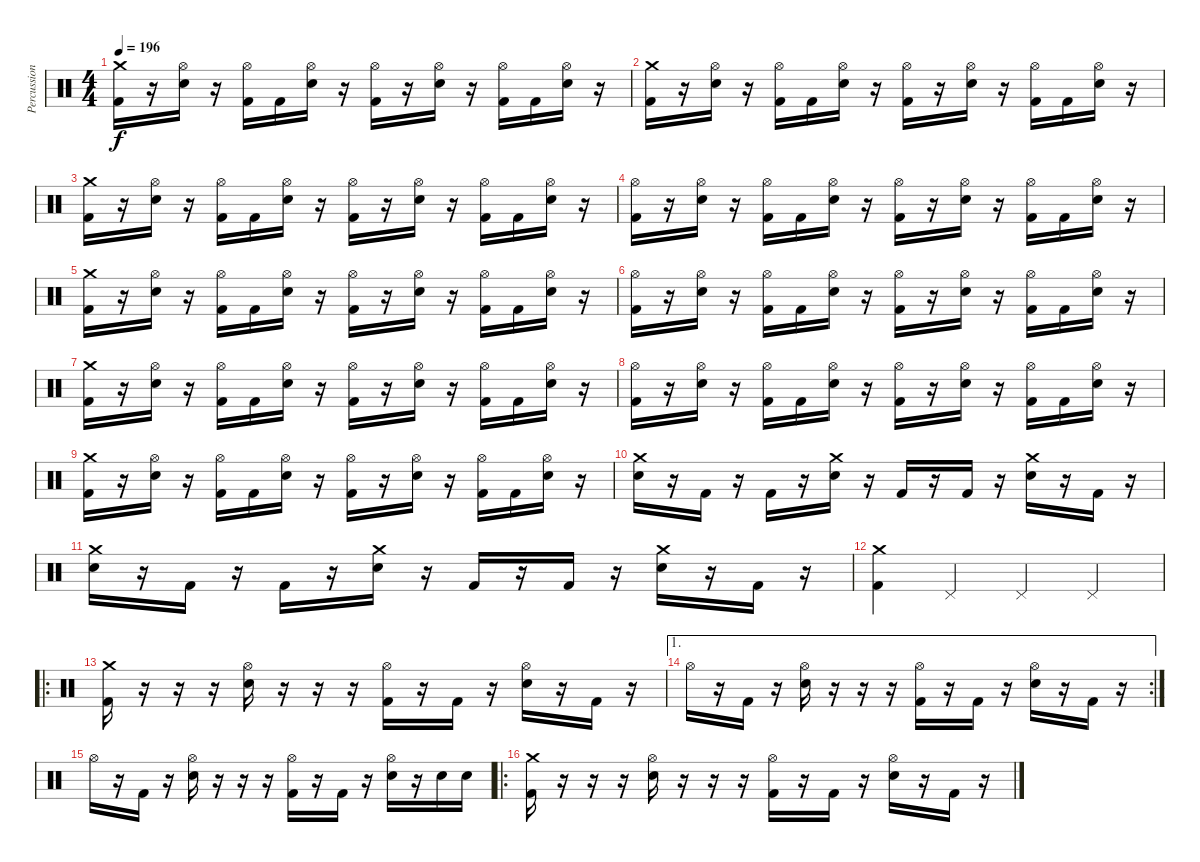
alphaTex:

\track ("Percussion" "Percussion") {instrument percussion}
\staff {score}
\articulation defaults
\ts (4 4)
\tempo 196
\clef neutral
\ks c
("Crash medium (hit)" "Kick (hit) 2").16{dy f} r.16 ("Hi-Hat (open)" "Electric Snare (hit)").16 r.16 ("Hi-Hat (open)" "Kick (hit) 2").16 "Kick (hit) 2".16 ("Hi-Hat (open)" "Electric Snare (hit)").16 r.16 ("Hi-Hat (open)" "Kick (hit) 2").16 r.16 ("Hi-Hat (open)" "Electric Snare (hit)").16 r.16 ("Hi-Hat (open)" "Kick (hit) 2").16 "Kick (hit) 2".16 ("Hi-Hat (open)" "Electric Snare (hit)").16 r.16 |
("Crash medium (hit)" "Kick (hit) 2").16 r.16 ("Hi-Hat (open)" "Electric Snare (hit)").16 r.16 ("Hi-Hat (open)" "Kick (hit) 2").16 "Kick (hit) 2".16 ("Hi-Hat (open)" "Electric Snare (hit)").16 r.16 ("Hi-Hat (open)" "Kick (hit) 2").16 r.16 ("Hi-Hat (open)" "Electric Snare (hit)").16 r.16 ("Hi-Hat (open)" "Kick (hit) 2").16 "Kick (hit) 2".16 ("Hi-Hat (open)" "Electric Snare (hit)").16 r.16 |
("Crash medium (hit)" "Kick (hit) 2").16 r.16 ("Hi-Hat (open)" "Electric Snare (hit)").16 r.16 ("Hi-Hat (open)" "Kick (hit) 2").16 "Kick (hit) 2".16 ("Hi-Hat (open)" "Electric Snare (hit)").16 r.16 ("Hi-Hat (open)" "Kick (hit) 2").16 r.16 ("Hi-Hat (open)" "Electric Snare (hit)").16 r.16 ("Hi-Hat (open)" "Kick (hit) 2").16 "Kick (hit) 2".16 ("Hi-Hat (open)" "Electric Snare (hit)").16 r.16 |
("Hi-Hat (open)" "Kick (hit) 2").16 r.16 ("Hi-Hat (open)" "Electric Snare (hit)").16 r.16 ("Hi-Hat (open)" "Kick (hit) 2").16 "Kick (hit) 2".16 ("Hi-Hat (open)" "Electric Snare (hit)").16 r.16 ("Hi-Hat (open)" "Kick (hit) 2").16 r.16 ("Hi-Hat (open)" "Electric Snare (hit)").16 r.16 ("Hi-Hat (open)" "Kick (hit) 2").16 "Kick (hit) 2".16 ("Hi-Hat (open)" "Electric Snare (hit)").16 r.16 |
("Crash medium (hit)" "Kick (hit) 2").16 r.16 ("Hi-Hat (open)" "Electric Snare (hit)").16 r.16 ("Hi-Hat (open)" "Kick (hit) 2").16 "Kick (hit) 2".16 ("Hi-Hat (open)" "Electric Snare (hit)").16 r.16 ("Hi-Hat (open)" "Kick (hit) 2").16 r.16 ("Hi-Hat (open)" "Electric Snare (hit)").16 r.16 ("Hi-Hat (open)" "Kick (hit) 2").16 "Kick (hit) 2".16 ("Hi-Hat (open)" "Electric Snare (hit)").16 r.16 |
("Hi-Hat (open)" "Kick (hit) 2").16 r.16 ("Hi-Hat (open)" "Electric Snare (hit)").16 r.16 ("Hi-Hat (open)" "Kick (hit) 2").16 "Kick (hit) 2".16 ("Hi-Hat (open)" "Electric Snare (hit)").16 r.16 ("Hi-Hat (open)" "Kick (hit) 2").16 r.16 ("Hi-Hat (open)" "Electric Snare (hit)").16 r.16 ("Hi-Hat (open)" "Kick (hit) 2").16 "Kick (hit) 2".16 ("Hi-Hat (open)" "Electric Snare (hit)").16 r.16 |
("Crash medium (hit)" "Kick (hit) 2").16 r.16 ("Hi-Hat (open)" "Electric Snare (hit)").16 r.16 ("Hi-Hat (open)" "Kick (hit) 2").16 "Kick (hit) 2".16 ("Hi-Hat (open)" "Electric Snare (hit)").16 r.16 ("Hi-Hat (open)" "Kick (hit) 2").16 r.16 ("Hi-Hat (open)" "Electric Snare (hit)").16 r.16 ("Hi-Hat (open)" "Kick (hit) 2").16 "Kick (hit) 2".16 ("Hi-Hat (open)" "Electric Snare (hit)").16 r.16 |
("Hi-Hat (open)" "Kick (hit) 2").16 r.16 ("Hi-Hat (open)" "Electric Snare (hit)").16 r.16 ("Hi-Hat (open)" "Kick (hit) 2").16 "Kick (hit) 2".16 ("Hi-Hat (open)" "Electric Snare (hit)").16 r.16 ("Hi-Hat (open)" "Kick (hit) 2").16 r.16 ("Hi-Hat (open)" "Electric Snare (hit)").16 r.16 ("Hi-Hat (open)" "Kick (hit) 2").16 "Kick (hit) 2".16 ("Hi-Hat (open)" "Electric Snare (hit)").16 r.16 |
("Crash medium (hit)" "Kick (hit) 2").16 r.16 ("Hi-Hat (open)" "Electric Snare (hit)").16 r.16 ("Hi-Hat (open)" "Kick (hit) 2").16 "Kick (hit) 2".16 ("Hi-Hat (open)" "Electric Snare (hit)").16 r.16 ("Hi-Hat (open)" "Kick (hit) 2").16 r.16 ("Hi-Hat (open)" "Electric Snare (hit)").16 r.16 ("Hi-Hat (open)" "Kick (hit) 2").16 "Kick (hit) 2".16 ("Hi-Hat (open)" "Electric Snare (hit)").16 r.16 |
("Crash medium (hit)" "Electric Snare (hit)").16 r.16 "Kick (hit) 2".16 r.16 "Kick (hit) 2".16 r.16 ("Crash medium (hit)" "Electric Snare (hit)").16 r.16 "Kick (hit) 2".16 r.16 "Kick (hit) 2".16 r.16 ("Crash medium (hit)" "Electric Snare (hit)").16 r.16 "Kick (hit) 2".16 r.16 |
("Crash medium (hit)" "Electric Snare (hit)").16 r.16 "Kick (hit) 2".16 r.16 "Kick (hit) 2".16 r.16 ("Crash medium (hit)" "Electric Snare (hit)").16 r.16 "Kick (hit) 2".16 r.16 "Kick (hit) 2".16 r.16 ("Crash medium (hit)" "Electric Snare (hit)").16 r.16 "Kick (hit) 2".16 r.16 |
("Crash medium (hit)" "Kick (hit) 2").4 "Pedal Hi-Hat (hit)".4 "Pedal Hi-Hat (hit)".4 "Pedal Hi-Hat (hit)".4 |
\ro
("Crash medium (hit)" "Kick (hit) 2").16 r.16 r.16 r.16 ("Hi-Hat (open)" "Electric Snare (hit)").16 r.16 r.16 r.16 ("Hi-Hat (open)" "Kick (hit) 2").16 r.16 "Kick (hit) 2".16 r.16 ("Hi-Hat (open)" "Electric Snare (hit)").16 r.16 "Kick (hit) 2".16 r.16 |
\ae 1
\rc 2 "Hi-Hat (open)".16
r.16 "Kick (hit) 2".16 r.16 ("Hi-Hat (open)" "Electric Snare (hit)").16 r.16 r.16 r.16 ("Hi-Hat (open)" "Kick (hit) 2").16 r.16 "Kick (hit) 2".16 r.16 ("Hi-Hat (open)" "Electric Snare (hit)").16 r.16 "Kick (hit) 2".16 r.16 |
"Hi-Hat (open)".16 r.16 "Kick (hit) 2".16 r.16 ("Hi-Hat (open)" "Electric Snare (hit)").16 r.16 r.16 r.16 ("Hi-Hat (open)" "Kick (hit) 2").16 r.16 "Kick (hit) 2".16 r.16 ("Hi-Hat (open)" "Electric Snare (hit)").16 r.16 "Electric Snare (hit)".16 "Electric Snare (hit)".16 |
\ro
("Crash medium (hit)" "Kick (hit) 2").16 r.16 r.16 r.16 ("Hi-Hat (open)" "Electric Snare (hit)").16 r.16 r.16 r.16 ("Hi-Hat (open)" "Kick (hit) 2").16 r.16 "Kick (hit) 2".16 r.16 ("Hi-Hat (open)" "Electric Snare (hit)").16 r.16 "Kick (hit) 2".16 r.16
